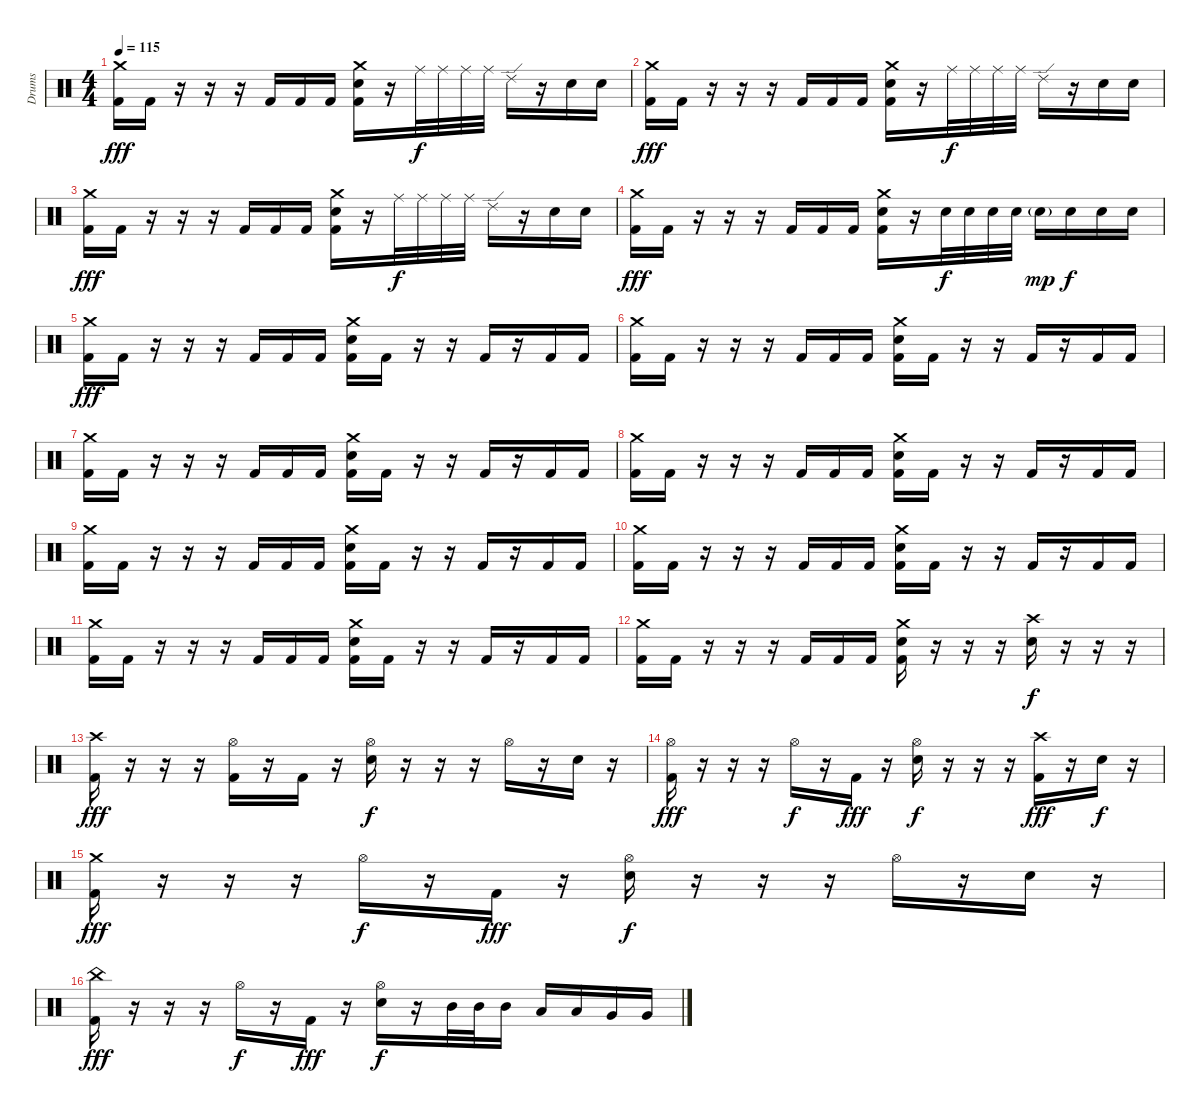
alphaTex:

\track ("Drums" "Drums") {instrument percussion}
\staff {score}
\articulation defaults
\ts (4 4)
\tempo 115
\clef neutral
\ks c
("Crash medium (hit)" "Kick (hit) 2").16{dy fff} "Kick (hit) 2".16 r.16 r.16 r.16 "Kick (hit) 2".16 "Kick (hit) 2".16 "Kick (hit) 2".16 ("Crash medium (hit)" "Electric Snare (hit)" "Kick (hit) 2").16 r.16 "Ride (middle)".32{dy f} "Ride (middle)".32 "Ride (middle)".32 "Ride (middle)".32 "Ride (edge) 2".16 r.16 "Electric Snare (hit)".16 "Electric Snare (hit)".16 |
("Crash medium (hit)" "Kick (hit) 2").16{dy fff} "Kick (hit) 2".16 r.16 r.16 r.16 "Kick (hit) 2".16 "Kick (hit) 2".16 "Kick (hit) 2".16 ("Crash medium (hit)" "Electric Snare (hit)" "Kick (hit) 2").16 r.16 "Ride (middle)".32{dy f} "Ride (middle)".32 "Ride (middle)".32 "Ride (middle)".32 "Ride (edge) 2".16 r.16 "Electric Snare (hit)".16 "Electric Snare (hit)".16 |
("Crash medium (hit)" "Kick (hit) 2").16{dy fff} "Kick (hit) 2".16 r.16 r.16 r.16 "Kick (hit) 2".16 "Kick (hit) 2".16 "Kick (hit) 2".16 ("Crash medium (hit)" "Electric Snare (hit)" "Kick (hit) 2").16 r.16 "Ride (middle)".32{dy f} "Ride (middle)".32 "Ride (middle)".32 "Ride (middle)".32 "Ride (edge) 2".16 r.16 "Electric Snare (hit)".16 "Electric Snare (hit)".16 |
("Crash medium (hit)" "Kick (hit) 2").16{dy fff} "Kick (hit) 2".16 r.16 r.16 r.16 "Kick (hit) 2".16 "Kick (hit) 2".16 "Kick (hit) 2".16 ("Crash medium (hit)" "Electric Snare (hit)" "Kick (hit) 2").16 r.16 "Electric Snare (hit)".32{dy f} "Electric Snare (hit)".32 "Electric Snare (hit)".32 "Electric Snare (hit)".32 "Electric Snare (hit)"{g}.16{dy mp} "Electric Snare (hit)".16{dy f} "Electric Snare (hit)".16 "Electric Snare (hit)".16 |
("Crash medium (hit)" "Kick (hit) 2").16{dy fff} "Kick (hit) 2".16 r.16 r.16 r.16 "Kick (hit) 2".16 "Kick (hit) 2".16 "Kick (hit) 2".16 ("Crash medium (hit)" "Electric Snare (hit)" "Kick (hit) 2").16 "Kick (hit) 2".16 r.16 r.16 "Kick (hit) 2".16 r.16 "Kick (hit) 2".16 "Kick (hit) 2".16 |
("Crash medium (hit)" "Kick (hit) 2").16 "Kick (hit) 2".16 r.16 r.16 r.16 "Kick (hit) 2".16 "Kick (hit) 2".16 "Kick (hit) 2".16 ("Crash medium (hit)" "Electric Snare (hit)" "Kick (hit) 2").16 "Kick (hit) 2".16 r.16 r.16 "Kick (hit) 2".16 r.16 "Kick (hit) 2".16 "Kick (hit) 2".16 |
("Crash medium (hit)" "Kick (hit) 2").16 "Kick (hit) 2".16 r.16 r.16 r.16 "Kick (hit) 2".16 "Kick (hit) 2".16 "Kick (hit) 2".16 ("Crash medium (hit)" "Electric Snare (hit)" "Kick (hit) 2").16 "Kick (hit) 2".16 r.16 r.16 "Kick (hit) 2".16 r.16 "Kick (hit) 2".16 "Kick (hit) 2".16 |
("Crash medium (hit)" "Kick (hit) 2").16 "Kick (hit) 2".16 r.16 r.16 r.16 "Kick (hit) 2".16 "Kick (hit) 2".16 "Kick (hit) 2".16 ("Crash medium (hit)" "Electric Snare (hit)" "Kick (hit) 2").16 "Kick (hit) 2".16 r.16 r.16 "Kick (hit) 2".16 r.16 "Kick (hit) 2".16 "Kick (hit) 2".16 |
("Crash medium (hit)" "Kick (hit) 2").16 "Kick (hit) 2".16 r.16 r.16 r.16 "Kick (hit) 2".16 "Kick (hit) 2".16 "Kick (hit) 2".16 ("Crash medium (hit)" "Electric Snare (hit)" "Kick (hit) 2").16 "Kick (hit) 2".16 r.16 r.16 "Kick (hit) 2".16 r.16 "Kick (hit) 2".16 "Kick (hit) 2".16 |
("Crash medium (hit)" "Kick (hit) 2").16 "Kick (hit) 2".16 r.16 r.16 r.16 "Kick (hit) 2".16 "Kick (hit) 2".16 "Kick (hit) 2".16 ("Crash medium (hit)" "Electric Snare (hit)" "Kick (hit) 2").16 "Kick (hit) 2".16 r.16 r.16 "Kick (hit) 2".16 r.16 "Kick (hit) 2".16 "Kick (hit) 2".16 |
("Crash medium (hit)" "Kick (hit) 2").16 "Kick (hit) 2".16 r.16 r.16 r.16 "Kick (hit) 2".16 "Kick (hit) 2".16 "Kick (hit) 2".16 ("Crash medium (hit)" "Electric Snare (hit)" "Kick (hit) 2").16 "Kick (hit) 2".16 r.16 r.16 "Kick (hit) 2".16 r.16 "Kick (hit) 2".16 "Kick (hit) 2".16 |
("Crash medium (hit)" "Kick (hit) 2").16 "Kick (hit) 2".16 r.16 r.16 r.16 "Kick (hit) 2".16 "Kick (hit) 2".16 "Kick (hit) 2".16 ("Crash medium (hit)" "Electric Snare (hit)" "Kick (hit) 2").16 r.16 r.16 r.16 ("Crash high (hit)" "Electric Snare (hit)").16{dy f} r.16 r.16 r.16 |
("Crash high (hit)" "Kick (hit) 2").16{dy fff} r.16 r.16 r.16 ("Hi-Hat (open)" "Kick (hit) 2").16 r.16 "Kick (hit) 2".16 r.16 ("Hi-Hat (open)" "Electric Snare (hit)").16{dy f} r.16 r.16 r.16 "Hi-Hat (open)".16 r.16 "Electric Snare (hit)".16 r.16 |
("Hi-Hat (open)" "Kick (hit) 2").16{dy fff} r.16 r.16 r.16 "Hi-Hat (open)".16{dy f} r.16 "Kick (hit) 2".16{dy fff} r.16 ("Hi-Hat (open)" "Electric Snare (hit)").16{dy f} r.16 r.16 r.16 ("Crash high (hit)" "Kick (hit) 2").16{dy fff} r.16 "Electric Snare (hit)".16{dy f} r.16 |
("Crash medium (hit)" "Kick (hit) 2").16{dy fff} r.16 r.16 r.16 "Hi-Hat (open)".16{dy f} r.16 "Kick (hit) 2".16{dy fff} r.16 ("Hi-Hat (open)" "Electric Snare (hit)").16{dy f} r.16 r.16 r.16 "Hi-Hat (open)".16 r.16 "Electric Snare (hit)".16 r.16 |
("China (hit)" "Kick (hit) 2").16{dy fff} r.16 r.16 r.16 "Hi-Hat (open)".16{dy f} r.16 "Kick (hit) 2".16{dy fff} r.16 ("Hi-Hat (open)" "Electric Snare (hit)").16{dy f} r.16 "Mid Tom (hit)".32 "Mid Tom (hit)".32 "Mid Tom (hit)".16 "Low Tom (hit)".16 "Low Tom (hit)".16 "Very Low Tom (hit)".16 "Very Low Tom (hit)".16
